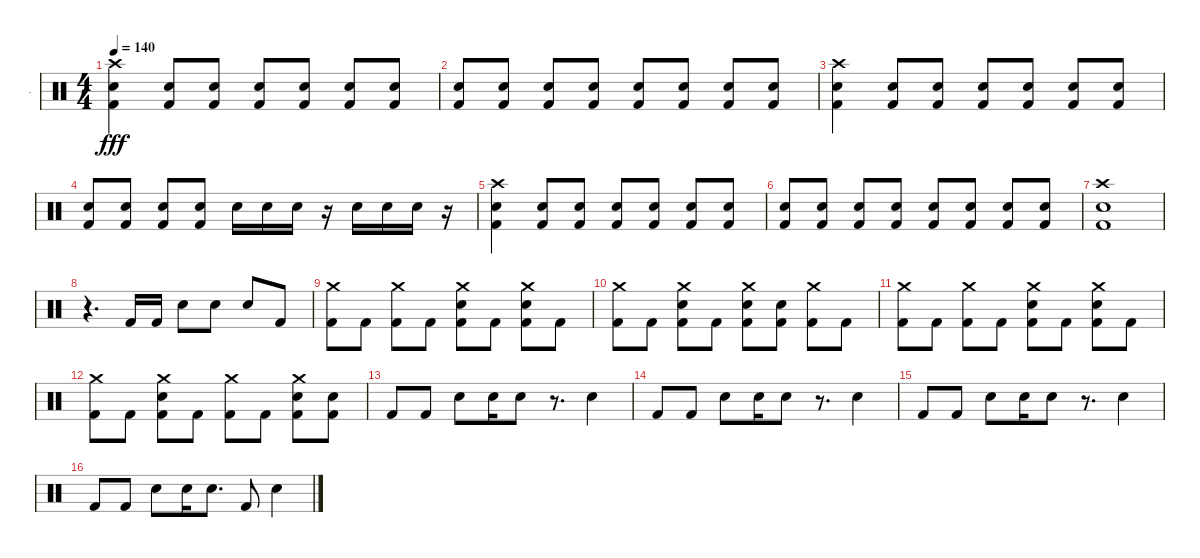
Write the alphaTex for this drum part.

\track ("." ".") {instrument percussion}
\staff {score}
\articulation defaults
\ts (4 4)
\tempo 140
\clef neutral
\ks c
("Crash high (hit)" "Electric Snare (hit)" "Kick (hit) 2").4{dy fff} ("Electric Snare (hit)" "Kick (hit) 2").8 ("Electric Snare (hit)" "Kick (hit) 2").8 ("Electric Snare (hit)" "Kick (hit) 2").8 ("Electric Snare (hit)" "Kick (hit) 2").8 ("Electric Snare (hit)" "Kick (hit) 2").8 ("Electric Snare (hit)" "Kick (hit) 2").8 |
("Electric Snare (hit)" "Kick (hit) 2").8 ("Electric Snare (hit)" "Kick (hit) 2").8 ("Electric Snare (hit)" "Kick (hit) 2").8 ("Electric Snare (hit)" "Kick (hit) 2").8 ("Electric Snare (hit)" "Kick (hit) 2").8 ("Electric Snare (hit)" "Kick (hit) 2").8 ("Electric Snare (hit)" "Kick (hit) 2").8 ("Electric Snare (hit)" "Kick (hit) 2").8 |
("Crash high (hit)" "Electric Snare (hit)" "Kick (hit) 2").4 ("Electric Snare (hit)" "Kick (hit) 2").8 ("Electric Snare (hit)" "Kick (hit) 2").8 ("Electric Snare (hit)" "Kick (hit) 2").8 ("Electric Snare (hit)" "Kick (hit) 2").8 ("Electric Snare (hit)" "Kick (hit) 2").8 ("Electric Snare (hit)" "Kick (hit) 2").8 |
("Electric Snare (hit)" "Kick (hit) 2").8 ("Electric Snare (hit)" "Kick (hit) 2").8 ("Electric Snare (hit)" "Kick (hit) 2").8 ("Electric Snare (hit)" "Kick (hit) 2").8 "Electric Snare (hit)".16 "Electric Snare (hit)".16 "Electric Snare (hit)".16 r.16 "Electric Snare (hit)".16 "Electric Snare (hit)".16 "Electric Snare (hit)".16 r.16 |
("Crash high (hit)" "Electric Snare (hit)" "Kick (hit) 2").4 ("Electric Snare (hit)" "Kick (hit) 2").8 ("Electric Snare (hit)" "Kick (hit) 2").8 ("Electric Snare (hit)" "Kick (hit) 2").8 ("Electric Snare (hit)" "Kick (hit) 2").8 ("Electric Snare (hit)" "Kick (hit) 2").8 ("Electric Snare (hit)" "Kick (hit) 2").8 |
("Electric Snare (hit)" "Kick (hit) 2").8 ("Electric Snare (hit)" "Kick (hit) 2").8 ("Electric Snare (hit)" "Kick (hit) 2").8 ("Electric Snare (hit)" "Kick (hit) 2").8 ("Electric Snare (hit)" "Kick (hit) 2").8 ("Electric Snare (hit)" "Kick (hit) 2").8 ("Electric Snare (hit)" "Kick (hit) 2").8 ("Electric Snare (hit)" "Kick (hit) 2").8 |
("Crash high (hit)" "Electric Snare (hit)" "Kick (hit) 2").1 |
r.4{d} "Kick (hit) 2".16 "Kick (hit) 2".16 "Electric Snare (hit)".8 "Electric Snare (hit)".8 "Electric Snare (hit)".8 "Kick (hit) 2".8 |
("Crash medium (hit)" "Kick (hit) 2").8 "Kick (hit) 2".8 ("Crash medium (hit)" "Kick (hit) 2").8 "Kick (hit) 2".8 ("Crash medium (hit)" "Electric Snare (hit)" "Kick (hit) 2").8 "Kick (hit) 2".8 ("Crash medium (hit)" "Electric Snare (hit)" "Kick (hit) 2").8 "Kick (hit) 2".8 |
("Crash medium (hit)" "Kick (hit) 2").8 "Kick (hit) 2".8 ("Crash medium (hit)" "Electric Snare (hit)" "Kick (hit) 2").8 "Kick (hit) 2".8 ("Crash medium (hit)" "Electric Snare (hit)" "Kick (hit) 2").8 ("Electric Snare (hit)" "Kick (hit) 2").8 ("Crash medium (hit)" "Kick (hit) 2").8 "Kick (hit) 2".8 |
("Crash medium (hit)" "Kick (hit) 2").8 "Kick (hit) 2".8 ("Crash medium (hit)" "Kick (hit) 2").8 "Kick (hit) 2".8 ("Crash medium (hit)" "Electric Snare (hit)" "Kick (hit) 2").8 "Kick (hit) 2".8 ("Crash medium (hit)" "Electric Snare (hit)" "Kick (hit) 2").8 "Kick (hit) 2".8 |
("Crash medium (hit)" "Kick (hit) 2").8 "Kick (hit) 2".8 ("Crash medium (hit)" "Electric Snare (hit)" "Kick (hit) 2").8 "Kick (hit) 2".8 ("Crash medium (hit)" "Kick (hit) 2").8 "Kick (hit) 2".8 ("Crash medium (hit)" "Electric Snare (hit)" "Kick (hit) 2").8 ("Electric Snare (hit)" "Kick (hit) 2").8 |
"Kick (hit) 2".8 "Kick (hit) 2".8 "Electric Snare (hit)".8 "Electric Snare (hit)".16 "Electric Snare (hit)".8 r.8{d} "Electric Snare (hit)".4 |
"Kick (hit) 2".8 "Kick (hit) 2".8 "Electric Snare (hit)".8 "Electric Snare (hit)".16 "Electric Snare (hit)".8 r.8{d} "Electric Snare (hit)".4 |
"Kick (hit) 2".8 "Kick (hit) 2".8 "Electric Snare (hit)".8 "Electric Snare (hit)".16 "Electric Snare (hit)".8 r.8{d} "Electric Snare (hit)".4 |
"Kick (hit) 2".8 "Kick (hit) 2".8 "Electric Snare (hit)".8 "Electric Snare (hit)".16 "Electric Snare (hit)".8{d} "Kick (hit) 2".8 "Electric Snare (hit)".4
